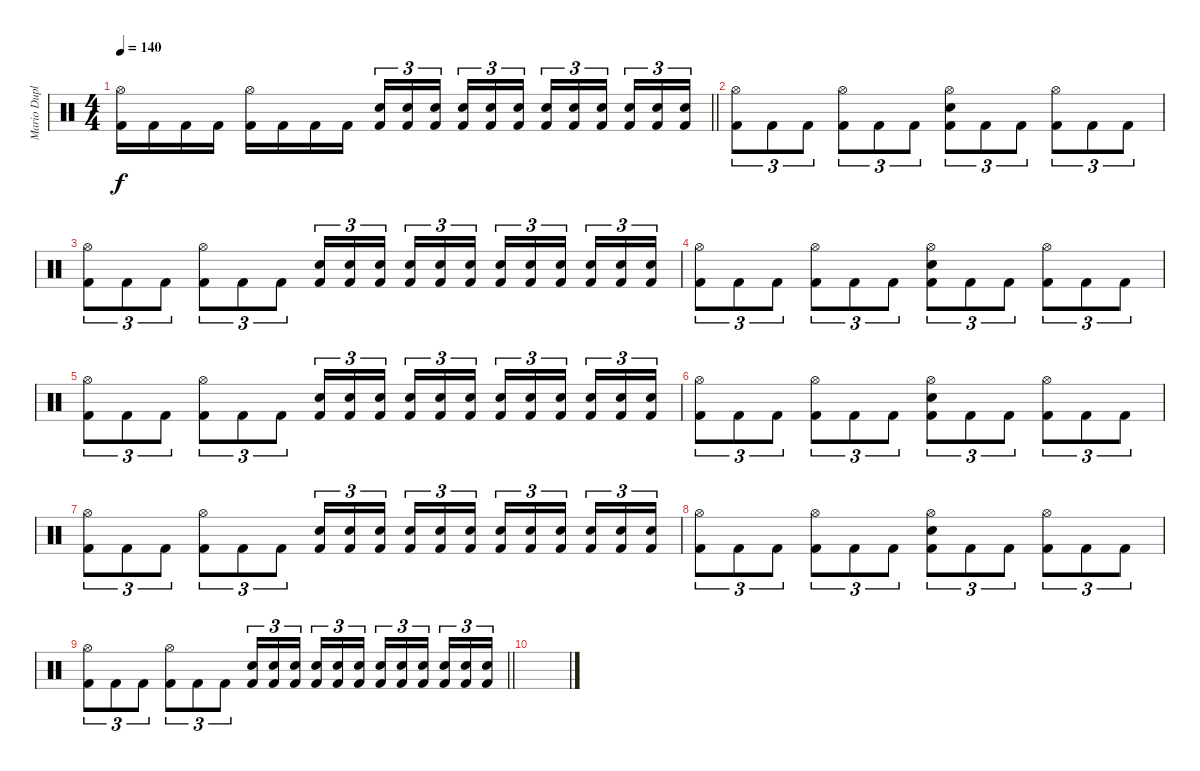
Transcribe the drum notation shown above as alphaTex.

\track ("Mario Duplantier" "Mario Dupl") {instrument percussion}
\staff {score}
\articulation defaults
\ts (4 4)
\tempo 140
\clef neutral
\barLineRight lightlight
\ks c
("Hi-Hat (open)" "Kick (hit) 2").16{dy f} "Kick (hit) 2".16 "Kick (hit) 2".16 "Kick (hit) 2".16 ("Hi-Hat (open)" "Kick (hit) 2").16 "Kick (hit) 2".16 "Kick (hit) 2".16 "Kick (hit) 2".16 ("Snare (hit) 2" "Kick (hit) 2").16{tu (3 2)} ("Snare (hit) 2" "Kick (hit) 2").16{tu (3 2)} ("Snare (hit) 2" "Kick (hit) 2").16{tu (3 2) beam splitsecondary} ("Snare (hit) 2" "Kick (hit) 2").16{tu (3 2)} ("Snare (hit) 2" "Kick (hit) 2").16{tu (3 2)} ("Snare (hit) 2" "Kick (hit) 2").16{tu (3 2)} ("Snare (hit) 2" "Kick (hit) 2").16{tu (3 2)} ("Snare (hit) 2" "Kick (hit) 2").16{tu (3 2)} ("Snare (hit) 2" "Kick (hit) 2").16{tu (3 2) beam splitsecondary} ("Snare (hit) 2" "Kick (hit) 2").16{tu (3 2)} ("Snare (hit) 2" "Kick (hit) 2").16{tu (3 2)} ("Snare (hit) 2" "Kick (hit) 2").16{tu (3 2)} |
\section ("" "")
("Hi-Hat (open)" "Kick (hit) 2").8{tu (3 2)} "Kick (hit) 2".8{tu (3 2)} "Kick (hit) 2".8{tu (3 2)} ("Hi-Hat (open)" "Kick (hit) 2").8{tu (3 2)} "Kick (hit) 2".8{tu (3 2)} "Kick (hit) 2".8{tu (3 2)} ("Hi-Hat (open)" "Electric Snare (hit)" "Kick (hit) 2").8{tu (3 2)} "Kick (hit) 2".8{tu (3 2)} "Kick (hit) 2".8{tu (3 2)} ("Hi-Hat (open)" "Kick (hit) 2").8{tu (3 2)} "Kick (hit) 2".8{tu (3 2)} "Kick (hit) 2".8{tu (3 2)} |
("Hi-Hat (open)" "Kick (hit) 2").8{tu (3 2)} "Kick (hit) 2".8{tu (3 2)} "Kick (hit) 2".8{tu (3 2)} ("Hi-Hat (open)" "Kick (hit) 2").8{tu (3 2)} "Kick (hit) 2".8{tu (3 2)} "Kick (hit) 2".8{tu (3 2)} ("Electric Snare (hit)" "Kick (hit) 2").16{tu (3 2)} ("Electric Snare (hit)" "Kick (hit) 2").16{tu (3 2)} ("Electric Snare (hit)" "Kick (hit) 2").16{tu (3 2) beam splitsecondary} ("Electric Snare (hit)" "Kick (hit) 2").16{tu (3 2)} ("Electric Snare (hit)" "Kick (hit) 2").16{tu (3 2)} ("Electric Snare (hit)" "Kick (hit) 2").16{tu (3 2)} ("Electric Snare (hit)" "Kick (hit) 2").16{tu (3 2)} ("Electric Snare (hit)" "Kick (hit) 2").16{tu (3 2)} ("Electric Snare (hit)" "Kick (hit) 2").16{tu (3 2) beam splitsecondary} ("Electric Snare (hit)" "Kick (hit) 2").16{tu (3 2)} ("Electric Snare (hit)" "Kick (hit) 2").16{tu (3 2)} ("Electric Snare (hit)" "Kick (hit) 2").16{tu (3 2)} |
("Hi-Hat (open)" "Kick (hit) 2").8{tu (3 2)} "Kick (hit) 2".8{tu (3 2)} "Kick (hit) 2".8{tu (3 2)} ("Hi-Hat (open)" "Kick (hit) 2").8{tu (3 2)} "Kick (hit) 2".8{tu (3 2)} "Kick (hit) 2".8{tu (3 2)} ("Hi-Hat (open)" "Electric Snare (hit)" "Kick (hit) 2").8{tu (3 2)} "Kick (hit) 2".8{tu (3 2)} "Kick (hit) 2".8{tu (3 2)} ("Hi-Hat (open)" "Kick (hit) 2").8{tu (3 2)} "Kick (hit) 2".8{tu (3 2)} "Kick (hit) 2".8{tu (3 2)} |
("Hi-Hat (open)" "Kick (hit) 2").8{tu (3 2)} "Kick (hit) 2".8{tu (3 2)} "Kick (hit) 2".8{tu (3 2)} ("Hi-Hat (open)" "Kick (hit) 2").8{tu (3 2)} "Kick (hit) 2".8{tu (3 2)} "Kick (hit) 2".8{tu (3 2)} ("Electric Snare (hit)" "Kick (hit) 2").16{tu (3 2)} ("Electric Snare (hit)" "Kick (hit) 2").16{tu (3 2)} ("Electric Snare (hit)" "Kick (hit) 2").16{tu (3 2) beam splitsecondary} ("Electric Snare (hit)" "Kick (hit) 2").16{tu (3 2)} ("Electric Snare (hit)" "Kick (hit) 2").16{tu (3 2)} ("Electric Snare (hit)" "Kick (hit) 2").16{tu (3 2)} ("Electric Snare (hit)" "Kick (hit) 2").16{tu (3 2)} ("Electric Snare (hit)" "Kick (hit) 2").16{tu (3 2)} ("Electric Snare (hit)" "Kick (hit) 2").16{tu (3 2) beam splitsecondary} ("Electric Snare (hit)" "Kick (hit) 2").16{tu (3 2)} ("Electric Snare (hit)" "Kick (hit) 2").16{tu (3 2)} ("Electric Snare (hit)" "Kick (hit) 2").16{tu (3 2)} |
("Hi-Hat (open)" "Kick (hit) 2").8{tu (3 2)} "Kick (hit) 2".8{tu (3 2)} "Kick (hit) 2".8{tu (3 2)} ("Hi-Hat (open)" "Kick (hit) 2").8{tu (3 2)} "Kick (hit) 2".8{tu (3 2)} "Kick (hit) 2".8{tu (3 2)} ("Hi-Hat (open)" "Electric Snare (hit)" "Kick (hit) 2").8{tu (3 2)} "Kick (hit) 2".8{tu (3 2)} "Kick (hit) 2".8{tu (3 2)} ("Hi-Hat (open)" "Kick (hit) 2").8{tu (3 2)} "Kick (hit) 2".8{tu (3 2)} "Kick (hit) 2".8{tu (3 2)} |
("Hi-Hat (open)" "Kick (hit) 2").8{tu (3 2)} "Kick (hit) 2".8{tu (3 2)} "Kick (hit) 2".8{tu (3 2)} ("Hi-Hat (open)" "Kick (hit) 2").8{tu (3 2)} "Kick (hit) 2".8{tu (3 2)} "Kick (hit) 2".8{tu (3 2)} ("Electric Snare (hit)" "Kick (hit) 2").16{tu (3 2)} ("Electric Snare (hit)" "Kick (hit) 2").16{tu (3 2)} ("Electric Snare (hit)" "Kick (hit) 2").16{tu (3 2) beam splitsecondary} ("Electric Snare (hit)" "Kick (hit) 2").16{tu (3 2)} ("Electric Snare (hit)" "Kick (hit) 2").16{tu (3 2)} ("Electric Snare (hit)" "Kick (hit) 2").16{tu (3 2)} ("Electric Snare (hit)" "Kick (hit) 2").16{tu (3 2)} ("Electric Snare (hit)" "Kick (hit) 2").16{tu (3 2)} ("Electric Snare (hit)" "Kick (hit) 2").16{tu (3 2) beam splitsecondary} ("Electric Snare (hit)" "Kick (hit) 2").16{tu (3 2)} ("Electric Snare (hit)" "Kick (hit) 2").16{tu (3 2)} ("Electric Snare (hit)" "Kick (hit) 2").16{tu (3 2)} |
("Hi-Hat (open)" "Kick (hit) 2").8{tu (3 2)} "Kick (hit) 2".8{tu (3 2)} "Kick (hit) 2".8{tu (3 2)} ("Hi-Hat (open)" "Kick (hit) 2").8{tu (3 2)} "Kick (hit) 2".8{tu (3 2)} "Kick (hit) 2".8{tu (3 2)} ("Hi-Hat (open)" "Electric Snare (hit)" "Kick (hit) 2").8{tu (3 2)} "Kick (hit) 2".8{tu (3 2)} "Kick (hit) 2".8{tu (3 2)} ("Hi-Hat (open)" "Kick (hit) 2").8{tu (3 2)} "Kick (hit) 2".8{tu (3 2)} "Kick (hit) 2".8{tu (3 2)} |
\barLineRight lightlight
("Hi-Hat (open)" "Kick (hit) 2").8{tu (3 2)} "Kick (hit) 2".8{tu (3 2)} "Kick (hit) 2".8{tu (3 2)} ("Hi-Hat (open)" "Kick (hit) 2").8{tu (3 2)} "Kick (hit) 2".8{tu (3 2)} "Kick (hit) 2".8{tu (3 2)} ("Electric Snare (hit)" "Kick (hit) 2").16{tu (3 2)} ("Electric Snare (hit)" "Kick (hit) 2").16{tu (3 2)} ("Electric Snare (hit)" "Kick (hit) 2").16{tu (3 2) beam splitsecondary} ("Electric Snare (hit)" "Kick (hit) 2").16{tu (3 2)} ("Electric Snare (hit)" "Kick (hit) 2").16{tu (3 2)} ("Electric Snare (hit)" "Kick (hit) 2").16{tu (3 2)} ("Electric Snare (hit)" "Kick (hit) 2").16{tu (3 2)} ("Electric Snare (hit)" "Kick (hit) 2").16{tu (3 2)} ("Electric Snare (hit)" "Kick (hit) 2").16{tu (3 2) beam splitsecondary} ("Electric Snare (hit)" "Kick (hit) 2").16{tu (3 2)} ("Electric Snare (hit)" "Kick (hit) 2").16{tu (3 2)} ("Electric Snare (hit)" "Kick (hit) 2").16{tu (3 2)} |
\section ("" "")
